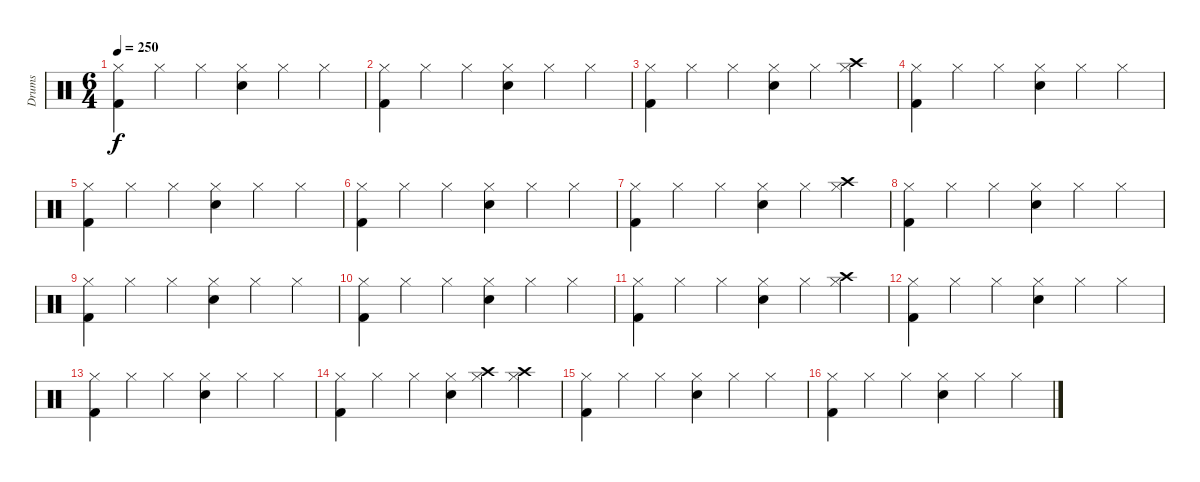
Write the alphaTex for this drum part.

\track ("Drums" "Drums") {instrument percussion}
\staff {score}
\articulation defaults
\ts (6 4)
\tempo 250
\clef neutral
\ks c
("Hi-Hat (closed)" "Kick (hit) 2").4{dy f} "Hi-Hat (closed)".4 "Hi-Hat (closed)".4 ("Hi-Hat (closed)" "Snare (hit) 2").4 "Hi-Hat (closed)".4 "Hi-Hat (closed)".4 |
("Hi-Hat (closed)" "Kick (hit) 2").4 "Hi-Hat (closed)".4 "Hi-Hat (closed)".4 ("Hi-Hat (closed)" "Snare (hit) 2").4 "Hi-Hat (closed)".4 "Hi-Hat (closed)".4 |
("Hi-Hat (closed)" "Kick (hit) 2").4 "Hi-Hat (closed)".4 "Hi-Hat (closed)".4 ("Hi-Hat (closed)" "Snare (hit) 2").4 "Hi-Hat (closed)".4 ("Hi-Hat (closed)" "Crash high (hit)").4 |
("Hi-Hat (closed)" "Kick (hit) 2").4 "Hi-Hat (closed)".4 "Hi-Hat (closed)".4 ("Hi-Hat (closed)" "Snare (hit) 2").4 "Hi-Hat (closed)".4 "Hi-Hat (closed)".4 |
("Hi-Hat (closed)" "Kick (hit) 2").4 "Hi-Hat (closed)".4 "Hi-Hat (closed)".4 ("Hi-Hat (closed)" "Snare (hit) 2").4 "Hi-Hat (closed)".4 "Hi-Hat (closed)".4 |
("Hi-Hat (closed)" "Kick (hit) 2").4 "Hi-Hat (closed)".4 "Hi-Hat (closed)".4 ("Hi-Hat (closed)" "Snare (hit) 2").4 "Hi-Hat (closed)".4 "Hi-Hat (closed)".4 |
("Hi-Hat (closed)" "Kick (hit) 2").4 "Hi-Hat (closed)".4 "Hi-Hat (closed)".4 ("Hi-Hat (closed)" "Snare (hit) 2").4 "Hi-Hat (closed)".4 ("Hi-Hat (closed)" "Crash high (hit)").4 |
("Hi-Hat (closed)" "Kick (hit) 2").4 "Hi-Hat (closed)".4 "Hi-Hat (closed)".4 ("Hi-Hat (closed)" "Snare (hit) 2").4 "Hi-Hat (closed)".4 "Hi-Hat (closed)".4 |
("Hi-Hat (closed)" "Kick (hit) 2").4 "Hi-Hat (closed)".4 "Hi-Hat (closed)".4 ("Hi-Hat (closed)" "Snare (hit) 2").4 "Hi-Hat (closed)".4 "Hi-Hat (closed)".4 |
("Hi-Hat (closed)" "Kick (hit) 2").4 "Hi-Hat (closed)".4 "Hi-Hat (closed)".4 ("Hi-Hat (closed)" "Snare (hit) 2").4 "Hi-Hat (closed)".4 "Hi-Hat (closed)".4 |
("Hi-Hat (closed)" "Kick (hit) 2").4 "Hi-Hat (closed)".4 "Hi-Hat (closed)".4 ("Hi-Hat (closed)" "Snare (hit) 2").4 "Hi-Hat (closed)".4 ("Hi-Hat (closed)" "Crash high (hit)").4 |
("Hi-Hat (closed)" "Kick (hit) 2").4 "Hi-Hat (closed)".4 "Hi-Hat (closed)".4 ("Hi-Hat (closed)" "Snare (hit) 2").4 "Hi-Hat (closed)".4 "Hi-Hat (closed)".4 |
("Hi-Hat (closed)" "Kick (hit) 2").4 "Hi-Hat (closed)".4 "Hi-Hat (closed)".4 ("Hi-Hat (closed)" "Snare (hit) 2").4 "Hi-Hat (closed)".4 "Hi-Hat (closed)".4 |
("Hi-Hat (closed)" "Kick (hit) 2").4 "Hi-Hat (closed)".4 "Hi-Hat (closed)".4 ("Hi-Hat (closed)" "Snare (hit) 2").4 ("Hi-Hat (closed)" "Crash high (hit)").4 ("Hi-Hat (closed)" "Crash high (hit)").4 |
("Hi-Hat (closed)" "Kick (hit) 2").4 "Hi-Hat (closed)".4 "Hi-Hat (closed)".4 ("Hi-Hat (closed)" "Snare (hit) 2").4 "Hi-Hat (closed)".4 "Hi-Hat (closed)".4 |
("Hi-Hat (closed)" "Kick (hit) 2").4 "Hi-Hat (closed)".4 "Hi-Hat (closed)".4 ("Hi-Hat (closed)" "Snare (hit) 2").4 "Hi-Hat (closed)".4 "Hi-Hat (closed)".4
